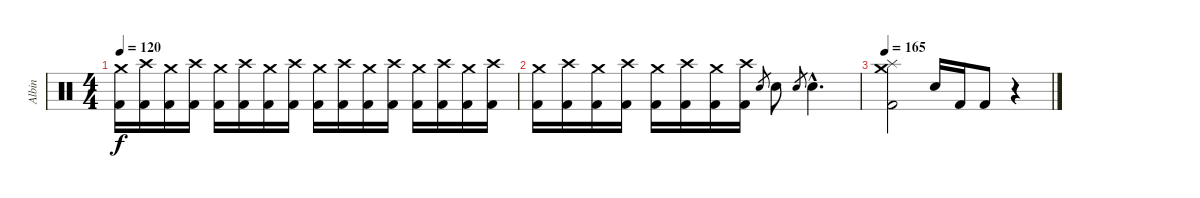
\track ("Albin" "Albin") {instrument percussion}
\staff {score}
\articulation defaults
\ts (4 4)
\tempo 120
\clef neutral
\ks c
("Crash medium (hit)" "Kick (hit) 2").16{dy f} ("Crash high (hit)" "Kick (hit) 2").16 ("Crash medium (hit)" "Kick (hit) 2").16 ("Crash high (hit)" "Kick (hit) 2").16 ("Crash medium (hit)" "Kick (hit) 2").16 ("Crash high (hit)" "Kick (hit) 2").16 ("Crash medium (hit)" "Kick (hit) 2").16 ("Crash high (hit)" "Kick (hit) 2").16 ("Crash medium (hit)" "Kick (hit) 2").16 ("Crash high (hit)" "Kick (hit) 2").16 ("Crash medium (hit)" "Kick (hit) 2").16 ("Crash high (hit)" "Kick (hit) 2").16 ("Crash medium (hit)" "Kick (hit) 2").16 ("Crash high (hit)" "Kick (hit) 2").16 ("Crash medium (hit)" "Kick (hit) 2").16 ("Crash high (hit)" "Kick (hit) 2").16 |
("Crash medium (hit)" "Kick (hit) 2").16 ("Crash high (hit)" "Kick (hit) 2").16 ("Crash medium (hit)" "Kick (hit) 2").16 ("Crash high (hit)" "Kick (hit) 2").16 ("Crash medium (hit)" "Kick (hit) 2").16 ("Crash high (hit)" "Kick (hit) 2").16 ("Crash medium (hit)" "Kick (hit) 2").16 ("Crash high (hit)" "Kick (hit) 2").16 "Electric Snare (hit)".8{gr} "Electric Snare (hit)".8 "Electric Snare (hit)".8{gr} "Electric Snare (hit)"{hac}.4{d} |
\tempo 165
("Crash medium (hit)" "Splash (hit)" "Kick (hit) 2").2 "Electric Snare (hit)".16 "Kick (hit) 2".16 "Kick (hit) 2".8 r.4
